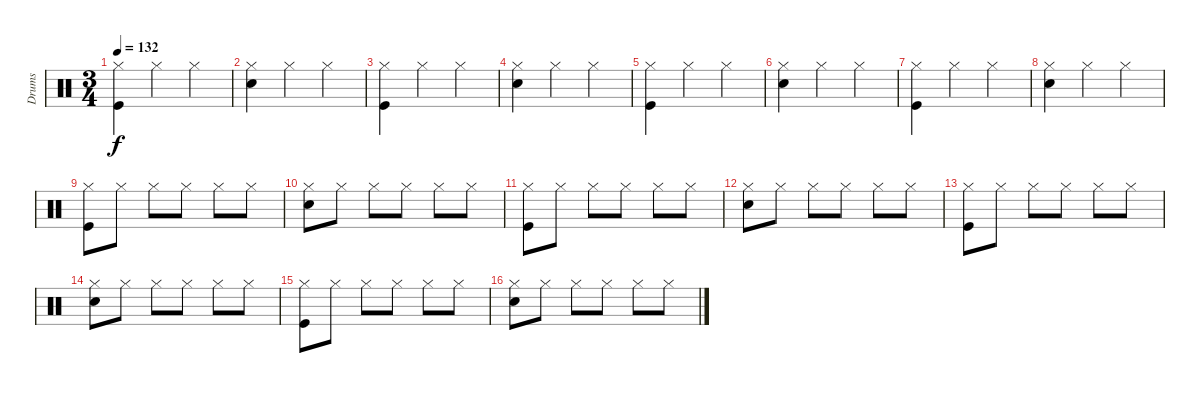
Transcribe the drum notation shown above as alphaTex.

\track ("Drums" "Drums") {instrument percussion}
\staff {score}
\articulation defaults
\ts (3 4)
\tempo 132
\clef neutral
\ks c
("Hi-Hat (closed)" "Kick (hit)").4{dy f} "Hi-Hat (closed)".4 "Hi-Hat (closed)".4 |
("Hi-Hat (closed)" "Snare (hit) 2").4 "Hi-Hat (closed)".4 "Hi-Hat (closed)".4 |
("Hi-Hat (closed)" "Kick (hit)").4 "Hi-Hat (closed)".4 "Hi-Hat (closed)".4 |
("Hi-Hat (closed)" "Snare (hit) 2").4 "Hi-Hat (closed)".4 "Hi-Hat (closed)".4 |
("Hi-Hat (closed)" "Kick (hit)").4 "Hi-Hat (closed)".4 "Hi-Hat (closed)".4 |
("Hi-Hat (closed)" "Snare (hit) 2").4 "Hi-Hat (closed)".4 "Hi-Hat (closed)".4 |
("Hi-Hat (closed)" "Kick (hit)").4 "Hi-Hat (closed)".4 "Hi-Hat (closed)".4 |
("Hi-Hat (closed)" "Snare (hit) 2").4 "Hi-Hat (closed)".4 "Hi-Hat (closed)".4 |
("Hi-Hat (closed)" "Kick (hit)").8 "Hi-Hat (closed)".8 "Hi-Hat (closed)".8 "Hi-Hat (closed)".8 "Hi-Hat (closed)".8 "Hi-Hat (closed)".8 |
("Hi-Hat (closed)" "Snare (hit) 2").8 "Hi-Hat (closed)".8 "Hi-Hat (closed)".8 "Hi-Hat (closed)".8 "Hi-Hat (closed)".8 "Hi-Hat (closed)".8 |
("Hi-Hat (closed)" "Kick (hit)").8 "Hi-Hat (closed)".8 "Hi-Hat (closed)".8 "Hi-Hat (closed)".8 "Hi-Hat (closed)".8 "Hi-Hat (closed)".8 |
("Hi-Hat (closed)" "Snare (hit) 2").8 "Hi-Hat (closed)".8 "Hi-Hat (closed)".8 "Hi-Hat (closed)".8 "Hi-Hat (closed)".8 "Hi-Hat (closed)".8 |
("Hi-Hat (closed)" "Kick (hit)").8 "Hi-Hat (closed)".8 "Hi-Hat (closed)".8 "Hi-Hat (closed)".8 "Hi-Hat (closed)".8 "Hi-Hat (closed)".8 |
("Hi-Hat (closed)" "Snare (hit) 2").8 "Hi-Hat (closed)".8 "Hi-Hat (closed)".8 "Hi-Hat (closed)".8 "Hi-Hat (closed)".8 "Hi-Hat (closed)".8 |
("Hi-Hat (closed)" "Kick (hit)").8 "Hi-Hat (closed)".8 "Hi-Hat (closed)".8 "Hi-Hat (closed)".8 "Hi-Hat (closed)".8 "Hi-Hat (closed)".8 |
("Hi-Hat (closed)" "Snare (hit) 2").8 "Hi-Hat (closed)".8 "Hi-Hat (closed)".8 "Hi-Hat (closed)".8 "Hi-Hat (closed)".8 "Hi-Hat (closed)".8
